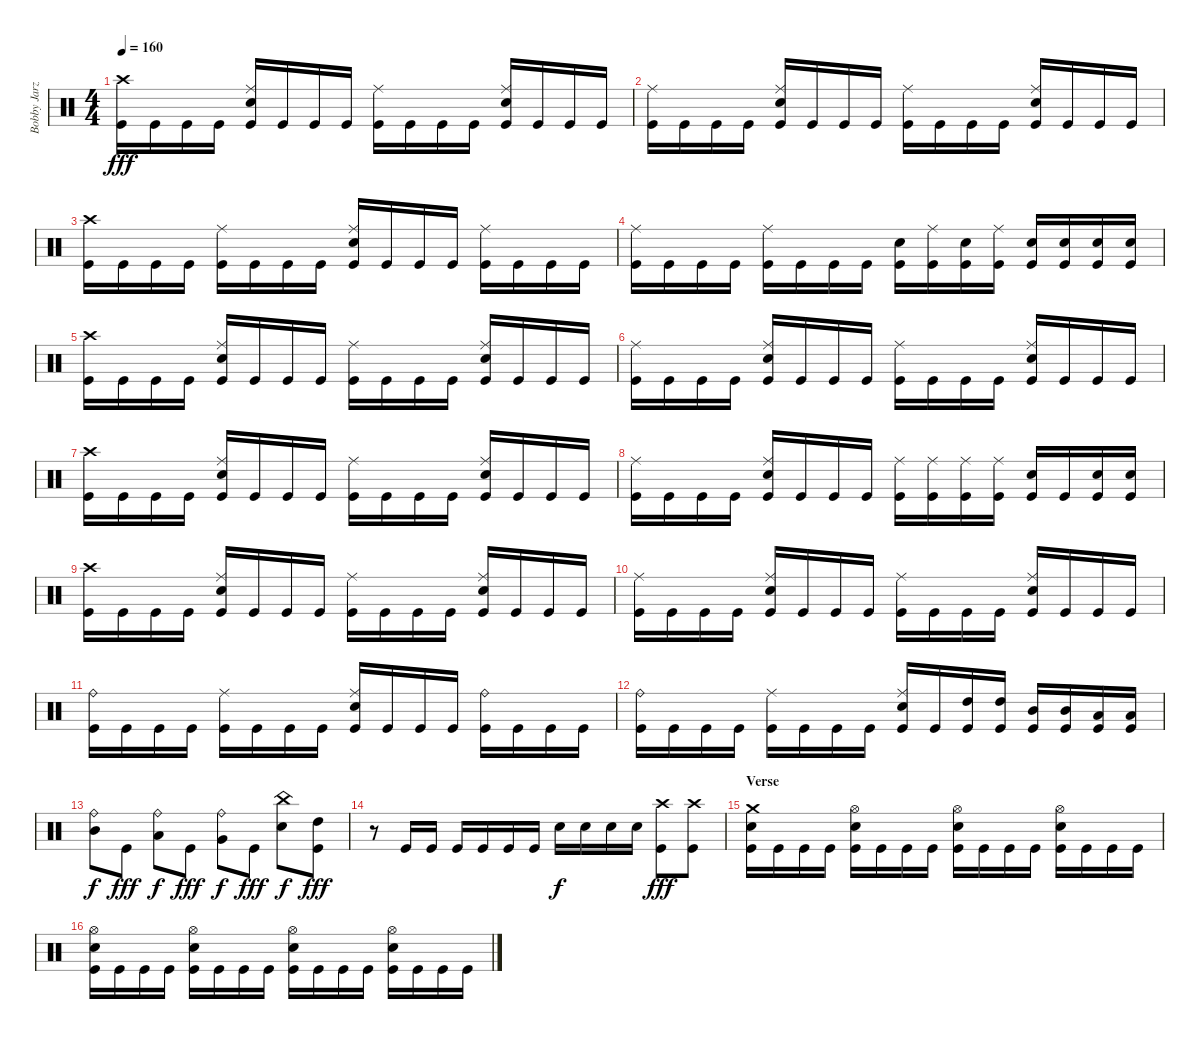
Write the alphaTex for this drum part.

\track ("Bobby Jarzombek" "Bobby Jarz") {instrument percussion}
\staff {score}
\articulation defaults
\ts (4 4)
\tempo 160
\clef neutral
\ks c
("Crash high (hit)" "Kick (hit)").16{dy fff} "Kick (hit)".16 "Kick (hit)".16 "Kick (hit)".16 ("Ride (middle)" "Electric Snare (hit)" "Kick (hit)").16 "Kick (hit)".16 "Kick (hit)".16 "Kick (hit)".16 ("Ride (middle)" "Kick (hit)").16 "Kick (hit)".16 "Kick (hit)".16 "Kick (hit)".16 ("Ride (middle)" "Electric Snare (hit)" "Kick (hit)").16 "Kick (hit)".16 "Kick (hit)".16 "Kick (hit)".16 |
("Ride (middle)" "Kick (hit)").16 "Kick (hit)".16 "Kick (hit)".16 "Kick (hit)".16 ("Ride (middle)" "Electric Snare (hit)" "Kick (hit)").16 "Kick (hit)".16 "Kick (hit)".16 "Kick (hit)".16 ("Ride (middle)" "Kick (hit)").16 "Kick (hit)".16 "Kick (hit)".16 "Kick (hit)".16 ("Ride (middle)" "Electric Snare (hit)" "Kick (hit)").16 "Kick (hit)".16 "Kick (hit)".16 "Kick (hit)".16 |
("Crash high (hit)" "Kick (hit)").16 "Kick (hit)".16 "Kick (hit)".16 "Kick (hit)".16 ("Ride (middle)" "Kick (hit)").16 "Kick (hit)".16 "Kick (hit)".16 "Kick (hit)".16 ("Ride (middle)" "Electric Snare (hit)" "Kick (hit)").16 "Kick (hit)".16 "Kick (hit)".16 "Kick (hit)".16 ("Ride (middle)" "Kick (hit)").16 "Kick (hit)".16 "Kick (hit)".16 "Kick (hit)".16 |
("Ride (middle)" "Kick (hit)").16 "Kick (hit)".16 "Kick (hit)".16 "Kick (hit)".16 ("Ride (middle)" "Kick (hit)").16 "Kick (hit)".16 "Kick (hit)".16 "Kick (hit)".16 ("Electric Snare (hit)" "Kick (hit)").16 ("Ride (middle)" "Kick (hit)").16 ("Electric Snare (hit)" "Kick (hit)").16 ("Ride (middle)" "Kick (hit)").16 ("Electric Snare (hit)" "Kick (hit)").16 ("Electric Snare (hit)" "Kick (hit)").16 ("Electric Snare (hit)" "Kick (hit)").16 ("Electric Snare (hit)" "Kick (hit)").16 |
("Crash high (hit)" "Kick (hit)").16 "Kick (hit)".16 "Kick (hit)".16 "Kick (hit)".16 ("Ride (middle)" "Electric Snare (hit)" "Kick (hit)").16 "Kick (hit)".16 "Kick (hit)".16 "Kick (hit)".16 ("Ride (middle)" "Kick (hit)").16 "Kick (hit)".16 "Kick (hit)".16 "Kick (hit)".16 ("Ride (middle)" "Electric Snare (hit)" "Kick (hit)").16 "Kick (hit)".16 "Kick (hit)".16 "Kick (hit)".16 |
("Ride (middle)" "Kick (hit)").16 "Kick (hit)".16 "Kick (hit)".16 "Kick (hit)".16 ("Ride (middle)" "Electric Snare (hit)" "Kick (hit)").16 "Kick (hit)".16 "Kick (hit)".16 "Kick (hit)".16 ("Ride (middle)" "Kick (hit)").16 "Kick (hit)".16 "Kick (hit)".16 "Kick (hit)".16 ("Ride (middle)" "Electric Snare (hit)" "Kick (hit)").16 "Kick (hit)".16 "Kick (hit)".16 "Kick (hit)".16 |
("Crash high (hit)" "Kick (hit)").16 "Kick (hit)".16 "Kick (hit)".16 "Kick (hit)".16 ("Ride (middle)" "Electric Snare (hit)" "Kick (hit)").16 "Kick (hit)".16 "Kick (hit)".16 "Kick (hit)".16 ("Ride (middle)" "Kick (hit)").16 "Kick (hit)".16 "Kick (hit)".16 "Kick (hit)".16 ("Ride (middle)" "Electric Snare (hit)" "Kick (hit)").16 "Kick (hit)".16 "Kick (hit)".16 "Kick (hit)".16 |
("Ride (middle)" "Kick (hit)").16 "Kick (hit)".16 "Kick (hit)".16 "Kick (hit)".16 ("Ride (middle)" "Electric Snare (hit)" "Kick (hit)").16 "Kick (hit)".16 "Kick (hit)".16 "Kick (hit)".16 ("Ride (middle)" "Kick (hit)").16 ("Ride (middle)" "Kick (hit)").16 ("Ride (middle)" "Kick (hit)").16 ("Ride (middle)" "Kick (hit)").16 ("Electric Snare (hit)" "Kick (hit)").16 "Kick (hit)".16 ("Electric Snare (hit)" "Kick (hit)").16 ("Electric Snare (hit)" "Kick (hit)").16 |
("Crash high (hit)" "Kick (hit)").16 "Kick (hit)".16 "Kick (hit)".16 "Kick (hit)".16 ("Ride (middle)" "Electric Snare (hit)" "Kick (hit)").16 "Kick (hit)".16 "Kick (hit)".16 "Kick (hit)".16 ("Ride (middle)" "Kick (hit)").16 "Kick (hit)".16 "Kick (hit)".16 "Kick (hit)".16 ("Ride (middle)" "Electric Snare (hit)" "Kick (hit)").16 "Kick (hit)".16 "Kick (hit)".16 "Kick (hit)".16 |
("Ride (middle)" "Kick (hit)").16 "Kick (hit)".16 "Kick (hit)".16 "Kick (hit)".16 ("Ride (middle)" "Electric Snare (hit)" "Kick (hit)").16 "Kick (hit)".16 "Kick (hit)".16 "Kick (hit)".16 ("Ride (middle)" "Kick (hit)").16 "Kick (hit)".16 "Kick (hit)".16 "Kick (hit)".16 ("Ride (middle)" "Electric Snare (hit)" "Kick (hit)").16 "Kick (hit)".16 "Kick (hit)".16 "Kick (hit)".16 |
("Ride (bell)" "Kick (hit)").16 "Kick (hit)".16 "Kick (hit)".16 "Kick (hit)".16 ("Ride (middle)" "Kick (hit)").16 "Kick (hit)".16 "Kick (hit)".16 "Kick (hit)".16 ("Ride (middle)" "Electric Snare (hit)" "Kick (hit)").16 "Kick (hit)".16 "Kick (hit)".16 "Kick (hit)".16 ("Ride (bell)" "Kick (hit)").16 "Kick (hit)".16 "Kick (hit)".16 "Kick (hit)".16 |
("Ride (bell)" "Kick (hit)").16 "Kick (hit)".16 "Kick (hit)".16 "Kick (hit)".16 ("Ride (middle)" "Kick (hit)").16 "Kick (hit)".16 "Kick (hit)".16 "Kick (hit)".16 ("Ride (middle)" "Electric Snare (hit)" "Kick (hit)").16 "Kick (hit)".16 ("High Tom (hit)" "Kick (hit)").16 ("High Tom (hit)" "Kick (hit)").16 ("Mid Tom (hit)" "Kick (hit)").16 ("Mid Tom (hit)" "Kick (hit)").16 ("Low Tom (hit)" "Kick (hit)").16 ("Low Tom (hit)" "Kick (hit)").16 |
("Ride (bell)" "Mid Tom (hit)").8{dy f} "Kick (hit)".8{dy fff} ("Ride (bell)" "Low Tom (hit)").8{dy f} "Kick (hit)".8{dy fff} ("Ride (bell)" "Very Low Tom (hit)").8{dy f} "Kick (hit)".8{dy fff} ("China (hit)" "Electric Snare (hit)").8{dy f} ("High Tom (hit)" "Kick (hit)").8{dy fff} |
r.8 "Kick (hit)".16 "Kick (hit)".16 "Kick (hit)".16 "Kick (hit)".16 "Kick (hit)".16 "Kick (hit)".16 "Electric Snare (hit)".16{dy f} "Electric Snare (hit)".16 "Electric Snare (hit)".16 "Electric Snare (hit)".16 ("Crash high (hit)" "Kick (hit)").8{dy fff} ("Crash high (hit)" "Kick (hit)").8 |
\section ("" "Verse")
("Crash medium (hit)" "Electric Snare (hit)" "Kick (hit)").16 "Kick (hit)".16 "Kick (hit)".16 "Kick (hit)".16 ("Hi-Hat (open)" "Electric Snare (hit)" "Kick (hit)").16 "Kick (hit)".16 "Kick (hit)".16 "Kick (hit)".16 ("Hi-Hat (open)" "Electric Snare (hit)" "Kick (hit)").16 "Kick (hit)".16 "Kick (hit)".16 "Kick (hit)".16 ("Hi-Hat (open)" "Electric Snare (hit)" "Kick (hit)").16 "Kick (hit)".16 "Kick (hit)".16 "Kick (hit)".16 |
("Hi-Hat (open)" "Electric Snare (hit)" "Kick (hit)").16 "Kick (hit)".16 "Kick (hit)".16 "Kick (hit)".16 ("Hi-Hat (open)" "Electric Snare (hit)" "Kick (hit)").16 "Kick (hit)".16 "Kick (hit)".16 "Kick (hit)".16 ("Hi-Hat (open)" "Electric Snare (hit)" "Kick (hit)").16 "Kick (hit)".16 "Kick (hit)".16 "Kick (hit)".16 ("Hi-Hat (open)" "Electric Snare (hit)" "Kick (hit)").16 "Kick (hit)".16 "Kick (hit)".16 "Kick (hit)".16
